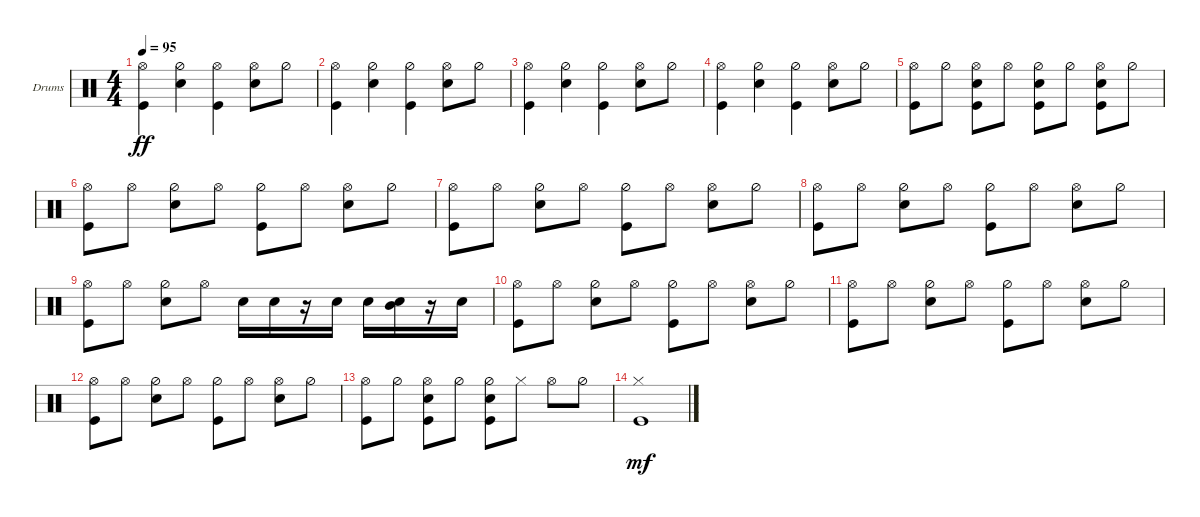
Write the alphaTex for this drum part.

\defaultSystemsLayout 4
\bracketExtendMode groupsimilarinstruments
\firstSystemTrackNameOrientation horizontal
\otherSystemsTrackNameOrientation horizontal
\track ("Drums" "Drums") {instrument percussion}
\staff {score}
\articulation defaults
\ts (4 4)
\tempo 95
\clef neutral
\ks c
("Kick (hit)" "Hi-Hat (open)").4{dy ff} ("Snare (hit) 2" "Hi-Hat (half)").4 ("Kick (hit)" "Hi-Hat (open)").4 ("Snare (hit) 2" "Hi-Hat (open)").8 "Hi-Hat (half)".8 |
("Kick (hit)" "Hi-Hat (open)").4 ("Snare (hit) 2" "Hi-Hat (half)").4 ("Hi-Hat (half)" "Kick (hit)").4 ("Snare (hit) 2" "Hi-Hat (open)").8 "Hi-Hat (half)".8 |
("Kick (hit)" "Hi-Hat (open)").4 ("Snare (hit) 2" "Hi-Hat (half)").4 ("Hi-Hat (half)" "Kick (hit)").4 ("Snare (hit) 2" "Hi-Hat (open)").8 "Hi-Hat (half)".8 |
("Kick (hit)" "Hi-Hat (open)").4 ("Snare (hit) 2" "Hi-Hat (half)").4 ("Hi-Hat (half)" "Kick (hit)").4 ("Snare (hit) 2" "Hi-Hat (open)").8 "Hi-Hat (half)".8 |
("Kick (hit)" "Hi-Hat (open)").8 "Hi-Hat (half)".8 ("Snare (hit) 2" "Hi-Hat (open)" "Kick (hit)").8 "Hi-Hat (open)".8 ("Hi-Hat (half)" "Snare (hit) 2" "Kick (hit)").8 "Hi-Hat (half)".8 ("Snare (hit) 2" "Hi-Hat (open)" "Kick (hit)").8 "Hi-Hat (half)".8 |
("Kick (hit)" "Hi-Hat (open)").8 "Hi-Hat (open)".8 ("Snare (hit) 2" "Hi-Hat (half)").8 "Hi-Hat (open)".8 ("Hi-Hat (half)" "Kick (hit)").8 "Hi-Hat (open)".8 ("Snare (hit) 2" "Hi-Hat (open)").8 "Hi-Hat (half)".8 |
("Kick (hit)" "Hi-Hat (open)").8 "Hi-Hat (open)".8 ("Snare (hit) 2" "Hi-Hat (half)").8 "Hi-Hat (open)".8 ("Hi-Hat (half)" "Kick (hit)").8 "Hi-Hat (open)".8 ("Snare (hit) 2" "Hi-Hat (open)").8 "Hi-Hat (half)".8 |
("Kick (hit)" "Hi-Hat (open)").8 "Hi-Hat (open)".8 ("Snare (hit) 2" "Hi-Hat (half)").8 "Hi-Hat (open)".8 ("Hi-Hat (half)" "Kick (hit)").8 "Hi-Hat (open)".8 ("Snare (hit) 2" "Hi-Hat (open)").8 "Hi-Hat (half)".8 |
("Kick (hit)" "Hi-Hat (open)").8 "Hi-Hat (open)".8 ("Snare (hit) 2" "Hi-Hat (half)").8 "Hi-Hat (open)".8 "Snare (hit) 2".16 "Snare (hit) 2".16 r.16 "Snare (hit) 2".16 "Snare (hit) 2".16 ("Snare (hit) 2" "Mid Tom (hit)").16 r.16 "Snare (hit) 2".16 |
("Kick (hit)" "Hi-Hat (open)").8 "Hi-Hat (open)".8 ("Snare (hit) 2" "Hi-Hat (half)").8 "Hi-Hat (open)".8 ("Hi-Hat (half)" "Kick (hit)").8 "Hi-Hat (open)".8 ("Snare (hit) 2" "Hi-Hat (open)").8 "Hi-Hat (half)".8 |
("Kick (hit)" "Hi-Hat (open)").8 "Hi-Hat (open)".8 ("Snare (hit) 2" "Hi-Hat (half)").8 "Hi-Hat (open)".8 ("Hi-Hat (half)" "Kick (hit)").8 "Hi-Hat (open)".8 ("Snare (hit) 2" "Hi-Hat (open)").8 "Hi-Hat (half)".8 |
("Kick (hit)" "Hi-Hat (open)").8 "Hi-Hat (open)".8 ("Snare (hit) 2" "Hi-Hat (half)").8 "Hi-Hat (open)".8 ("Hi-Hat (half)" "Kick (hit)").8 "Hi-Hat (open)".8 ("Snare (hit) 2" "Hi-Hat (open)").8 "Hi-Hat (half)".8 |
("Kick (hit)" "Hi-Hat (open)").8 "Hi-Hat (half)".8 ("Snare (hit) 2" "Hi-Hat (open)" "Kick (hit)").8 "Hi-Hat (half)".8 ("Hi-Hat (half)" "Snare (hit) 2" "Kick (hit)").8 "Hi-Hat (closed)".8 "Hi-Hat (open)".8 "Hi-Hat (half)".8 |
("Hi-Hat (closed)" "Kick (hit)").1{dy mf}
